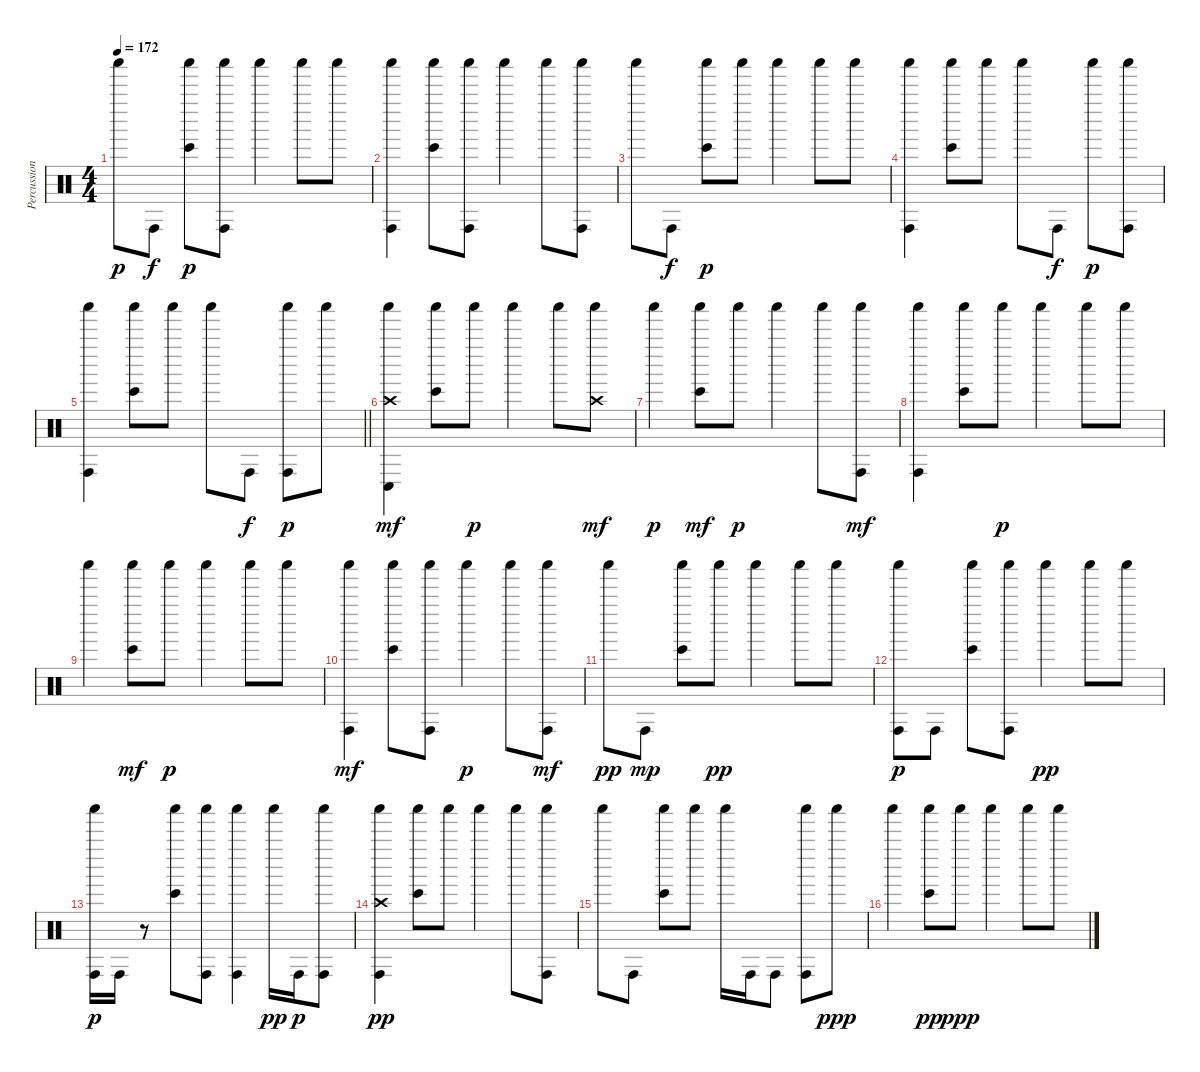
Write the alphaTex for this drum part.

\track ("Percussion" "Percussion") {instrument percussion}
\staff {score}
\articulation defaults
\ts (4 4)
\tempo 172
\clef neutral
\ks c "Shaker (hit)".8{dy p} "Conga high (hit)".8{dy f}
("Shaker (hit)" "Bongo High (hit)").8{dy p} ("Shaker (hit)" "Conga high (hit)").8 "Shaker (hit)".4 "Shaker (hit)".8 "Shaker (hit)".8 |
("Shaker (hit)" "Conga high (hit)").4 ("Shaker (hit)" "Bongo High (hit)").8 ("Shaker (hit)" "Conga high (hit)").8 "Shaker (hit)".4 "Shaker (hit)".8 ("Shaker (hit)" "Conga high (hit)").8 |
"Shaker (hit)".8 "Conga high (hit)".8{dy f} ("Shaker (hit)" "Bongo High (hit)").8{dy p} "Shaker (hit)".8 "Shaker (hit)".4 "Shaker (hit)".8 "Shaker (hit)".8 |
("Shaker (hit)" "Conga high (hit)").4 ("Shaker (hit)" "Bongo High (hit)").8 "Shaker (hit)".8 "Shaker (hit)".8 "Conga high (hit)".8{dy f} "Shaker (hit)".8{dy p} ("Shaker (hit)" "Conga high (hit)").8 |
\barLineRight lightlight
("Shaker (hit)" "Conga high (hit)").4 ("Shaker (hit)" "Bongo High (hit)").8 "Shaker (hit)".8 "Shaker (hit)".8 "Conga high (hit)".8{dy f} ("Shaker (hit)" "Conga high (hit)").8{dy p} "Shaker (hit)".8 |
("Shaker (hit)" "Crash high (hit)" "Conga low (hit)").4{dy mf} ("Shaker (hit)" "Bongo High (hit)").8 "Shaker (hit)".8{dy p} "Shaker (hit)".4 "Shaker (hit)".8 ("Shaker (hit)" "Crash high (hit)").8{dy mf} |
"Shaker (hit)".4{dy p} ("Shaker (hit)" "Bongo High (hit)").8{dy mf} "Shaker (hit)".8{dy p} "Shaker (hit)".4 "Shaker (hit)".8 ("Shaker (hit)" "Conga high (hit)").8{dy mf} |
("Shaker (hit)" "Conga high (hit)").4 ("Shaker (hit)" "Bongo High (hit)").8 "Shaker (hit)".8{dy p} "Shaker (hit)".4 "Shaker (hit)".8 "Shaker (hit)".8 |
"Shaker (hit)".4 ("Shaker (hit)" "Bongo High (hit)").8{dy mf} "Shaker (hit)".8{dy p} "Shaker (hit)".4 "Shaker (hit)".8 "Shaker (hit)".8 |
("Shaker (hit)" "Conga high (hit)").4{dy mf} ("Shaker (hit)" "Bongo High (hit)").8 ("Shaker (hit)" "Conga high (hit)").8 "Shaker (hit)".4{dy p} "Shaker (hit)".8 ("Shaker (hit)" "Conga high (hit)").8{dy mf} |
"Shaker (hit)".8{dy pp} "Conga high (hit)".8{dy mp} ("Shaker (hit)" "Bongo High (hit)").8 "Shaker (hit)".8{dy pp} "Shaker (hit)".4 "Shaker (hit)".8 "Shaker (hit)".8 |
("Shaker (hit)" "Conga high (hit)").8{dy p} "Conga high (hit)".8 ("Shaker (hit)" "Bongo High (hit)").8 ("Shaker (hit)" "Conga high (hit)").8 "Shaker (hit)".4{dy pp} "Shaker (hit)".8 "Shaker (hit)".8 |
("Shaker (hit)" "Conga high (hit)").16{dy p} "Conga high (hit)".16 r.8 ("Shaker (hit)" "Bongo High (hit)").8 ("Shaker (hit)" "Conga high (hit)").8 ("Shaker (hit)" "Conga high (hit)").4 "Shaker (hit)".16{dy pp} "Conga high (hit)".16{dy p} ("Shaker (hit)" "Conga high (hit)").8 |
("Shaker (hit)" "Crash high (hit)" "Conga high (hit)").4{dy pp} ("Shaker (hit)" "Bongo High (hit)").8 "Shaker (hit)".8 "Shaker (hit)".4 "Shaker (hit)".8 ("Shaker (hit)" "Conga high (hit)").8 |
"Shaker (hit)".8 "Conga high (hit)".8 ("Shaker (hit)" "Bongo High (hit)").8 "Shaker (hit)".8 "Shaker (hit)".16 "Conga high (hit)".16 "Conga high (hit)".8 ("Shaker (hit)" "Conga high (hit)").8 "Shaker (hit)".8{dy ppp} |
"Shaker (hit)".4 ("Shaker (hit)" "Bongo High (hit)").8{dy pp} "Shaker (hit)".8{dy ppp} "Shaker (hit)".4 "Shaker (hit)".8 "Shaker (hit)".8
